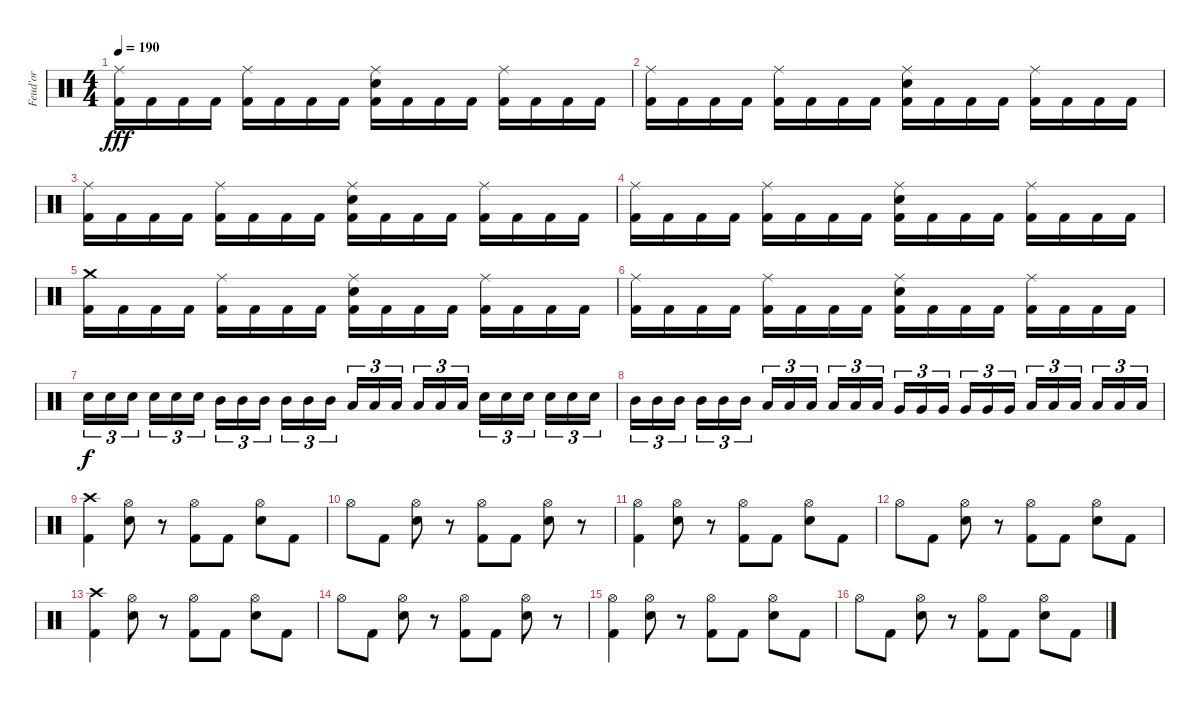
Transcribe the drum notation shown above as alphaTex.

\track ("Feud'or" "Feud'or") {instrument percussion}
\staff {score}
\articulation defaults
\ts (4 4)
\tempo 190
\clef neutral
\ks c
("Ride (middle)" "Kick (hit) 2").16{dy fff} "Kick (hit) 2".16 "Kick (hit) 2".16 "Kick (hit) 2".16 ("Ride (middle)" "Kick (hit) 2").16 "Kick (hit) 2".16 "Kick (hit) 2".16 "Kick (hit) 2".16 ("Ride (middle)" "Snare (hit) 2" "Kick (hit) 2").16 "Kick (hit) 2".16 "Kick (hit) 2".16 "Kick (hit) 2".16 ("Ride (middle)" "Kick (hit) 2").16 "Kick (hit) 2".16 "Kick (hit) 2".16 "Kick (hit) 2".16 |
("Ride (middle)" "Kick (hit) 2").16 "Kick (hit) 2".16 "Kick (hit) 2".16 "Kick (hit) 2".16 ("Ride (middle)" "Kick (hit) 2").16 "Kick (hit) 2".16 "Kick (hit) 2".16 "Kick (hit) 2".16 ("Ride (middle)" "Snare (hit) 2" "Kick (hit) 2").16 "Kick (hit) 2".16 "Kick (hit) 2".16 "Kick (hit) 2".16 ("Ride (middle)" "Kick (hit) 2").16 "Kick (hit) 2".16 "Kick (hit) 2".16 "Kick (hit) 2".16 |
("Ride (middle)" "Kick (hit) 2").16 "Kick (hit) 2".16 "Kick (hit) 2".16 "Kick (hit) 2".16 ("Ride (middle)" "Kick (hit) 2").16 "Kick (hit) 2".16 "Kick (hit) 2".16 "Kick (hit) 2".16 ("Ride (middle)" "Snare (hit) 2" "Kick (hit) 2").16 "Kick (hit) 2".16 "Kick (hit) 2".16 "Kick (hit) 2".16 ("Ride (middle)" "Kick (hit) 2").16 "Kick (hit) 2".16 "Kick (hit) 2".16 "Kick (hit) 2".16 |
("Ride (middle)" "Kick (hit) 2").16 "Kick (hit) 2".16 "Kick (hit) 2".16 "Kick (hit) 2".16 ("Ride (middle)" "Kick (hit) 2").16 "Kick (hit) 2".16 "Kick (hit) 2".16 "Kick (hit) 2".16 ("Ride (middle)" "Snare (hit) 2" "Kick (hit) 2").16 "Kick (hit) 2".16 "Kick (hit) 2".16 "Kick (hit) 2".16 ("Ride (middle)" "Kick (hit) 2").16 "Kick (hit) 2".16 "Kick (hit) 2".16 "Kick (hit) 2".16 |
("Crash medium (hit)" "Kick (hit) 2").16 "Kick (hit) 2".16 "Kick (hit) 2".16 "Kick (hit) 2".16 ("Ride (middle)" "Kick (hit) 2").16 "Kick (hit) 2".16 "Kick (hit) 2".16 "Kick (hit) 2".16 ("Ride (middle)" "Snare (hit) 2" "Kick (hit) 2").16 "Kick (hit) 2".16 "Kick (hit) 2".16 "Kick (hit) 2".16 ("Ride (middle)" "Kick (hit) 2").16 "Kick (hit) 2".16 "Kick (hit) 2".16 "Kick (hit) 2".16 |
("Ride (middle)" "Kick (hit) 2").16 "Kick (hit) 2".16 "Kick (hit) 2".16 "Kick (hit) 2".16 ("Ride (middle)" "Kick (hit) 2").16 "Kick (hit) 2".16 "Kick (hit) 2".16 "Kick (hit) 2".16 ("Ride (middle)" "Snare (hit) 2" "Kick (hit) 2").16 "Kick (hit) 2".16 "Kick (hit) 2".16 "Kick (hit) 2".16 ("Ride (middle)" "Kick (hit) 2").16 "Kick (hit) 2".16 "Kick (hit) 2".16 "Kick (hit) 2".16 |
"Snare (hit) 2".16{tu (3 2) dy f} "Snare (hit) 2".16{tu (3 2)} "Snare (hit) 2".16{tu (3 2) beam splitsecondary} "Snare (hit) 2".16{tu (3 2)} "Snare (hit) 2".16{tu (3 2)} "Snare (hit) 2".16{tu (3 2)} "Mid Tom (hit)".16{tu (3 2)} "Mid Tom (hit)".16{tu (3 2)} "Mid Tom (hit)".16{tu (3 2) beam splitsecondary} "Mid Tom (hit)".16{tu (3 2)} "Mid Tom (hit)".16{tu (3 2)} "Mid Tom (hit)".16{tu (3 2)} "Low Tom (hit)".16{tu (3 2)} "Low Tom (hit)".16{tu (3 2)} "Low Tom (hit)".16{tu (3 2) beam splitsecondary} "Low Tom (hit)".16{tu (3 2)} "Low Tom (hit)".16{tu (3 2)} "Low Tom (hit)".16{tu (3 2)} "Snare (hit) 2".16{tu (3 2)} "Snare (hit) 2".16{tu (3 2)} "Snare (hit) 2".16{tu (3 2) beam splitsecondary} "Snare (hit) 2".16{tu (3 2)} "Snare (hit) 2".16{tu (3 2)} "Snare (hit) 2".16{tu (3 2)} |
"Mid Tom (hit)".16{tu (3 2)} "Mid Tom (hit)".16{tu (3 2)} "Mid Tom (hit)".16{tu (3 2) beam splitsecondary} "Mid Tom (hit)".16{tu (3 2)} "Mid Tom (hit)".16{tu (3 2)} "Mid Tom (hit)".16{tu (3 2)} "Low Tom (hit)".16{tu (3 2)} "Low Tom (hit)".16{tu (3 2)} "Low Tom (hit)".16{tu (3 2) beam splitsecondary} "Low Tom (hit)".16{tu (3 2)} "Low Tom (hit)".16{tu (3 2)} "Low Tom (hit)".16{tu (3 2)} "Very Low Tom (hit)".16{tu (3 2)} "Very Low Tom (hit)".16{tu (3 2)} "Very Low Tom (hit)".16{tu (3 2) beam splitsecondary} "Very Low Tom (hit)".16{tu (3 2)} "Very Low Tom (hit)".16{tu (3 2)} "Very Low Tom (hit)".16{tu (3 2)} "Low Floor Tom (hit)".16{tu (3 2)} "Low Floor Tom (hit)".16{tu (3 2)} "Low Floor Tom (hit)".16{tu (3 2) beam splitsecondary} "Low Floor Tom (hit)".16{tu (3 2)} "Low Floor Tom (hit)".16{tu (3 2)} "Low Floor Tom (hit)".16{tu (3 2)} |
("Crash high (hit)" "Kick (hit) 2").4 ("Hi-Hat (open)" "Snare (hit) 2").8 r.8 ("Hi-Hat (open)" "Kick (hit) 2").8 "Kick (hit) 2".8 ("Hi-Hat (open)" "Snare (hit) 2").8 "Kick (hit) 2".8 |
"Hi-Hat (open)".8 "Kick (hit) 2".8 ("Hi-Hat (open)" "Snare (hit) 2").8 r.8 ("Hi-Hat (open)" "Kick (hit) 2").8 "Kick (hit) 2".8 ("Hi-Hat (open)" "Snare (hit) 2").8 r.8 |
("Hi-Hat (open)" "Kick (hit) 2").4 ("Hi-Hat (open)" "Snare (hit) 2").8 r.8 ("Hi-Hat (open)" "Kick (hit) 2").8 "Kick (hit) 2".8 ("Hi-Hat (open)" "Snare (hit) 2").8 "Kick (hit) 2".8 |
"Hi-Hat (open)".8 "Kick (hit) 2".8 ("Hi-Hat (open)" "Snare (hit) 2").8 r.8 ("Hi-Hat (open)" "Kick (hit) 2").8 "Kick (hit) 2".8 ("Hi-Hat (open)" "Snare (hit) 2").8 "Kick (hit) 2".8 |
("Crash high (hit)" "Kick (hit) 2").4 ("Hi-Hat (open)" "Snare (hit) 2").8 r.8 ("Hi-Hat (open)" "Kick (hit) 2").8 "Kick (hit) 2".8 ("Hi-Hat (open)" "Snare (hit) 2").8 "Kick (hit) 2".8 |
"Hi-Hat (open)".8 "Kick (hit) 2".8 ("Hi-Hat (open)" "Snare (hit) 2").8 r.8 ("Hi-Hat (open)" "Kick (hit) 2").8 "Kick (hit) 2".8 ("Hi-Hat (open)" "Snare (hit) 2").8 r.8 |
("Hi-Hat (open)" "Kick (hit) 2").4 ("Hi-Hat (open)" "Snare (hit) 2").8 r.8 ("Hi-Hat (open)" "Kick (hit) 2").8 "Kick (hit) 2".8 ("Hi-Hat (open)" "Snare (hit) 2").8 "Kick (hit) 2".8 |
"Hi-Hat (open)".8 "Kick (hit) 2".8 ("Hi-Hat (open)" "Snare (hit) 2").8 r.8 ("Hi-Hat (open)" "Kick (hit) 2").8 "Kick (hit) 2".8 ("Hi-Hat (open)" "Snare (hit) 2").8 "Kick (hit) 2".8
